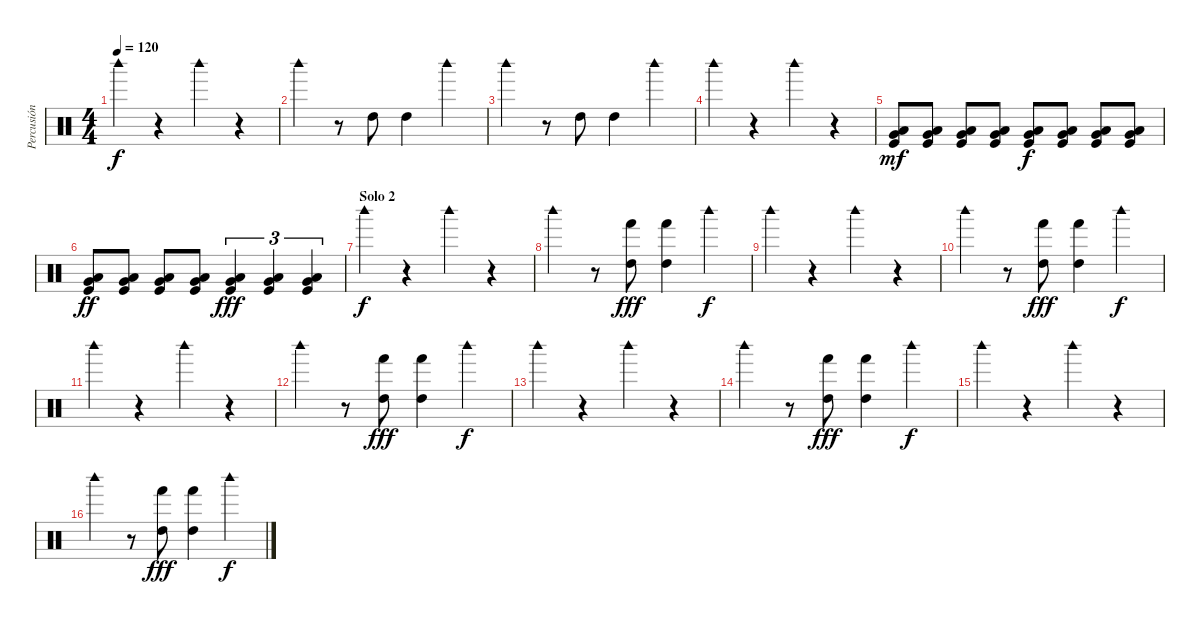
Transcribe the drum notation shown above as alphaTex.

\track ("Percusión" "Percusión") {instrument percussion}
\staff {score}
\articulation defaults
\ts (4 4)
\tempo 120
\clef neutral
\ks c "Woodblock high (hit)".4{dy f}
r.4 "Woodblock high (hit)".4 r.4 |
"Woodblock high (hit)".4 r.8 "High Tom (hit)".8 "High Tom (hit)".4 "Woodblock high (hit)".4 |
"Woodblock high (hit)".4 r.8 "High Tom (hit)".8 "High Tom (hit)".4 "Woodblock high (hit)".4 |
"Woodblock high (hit)".4 r.4 "Woodblock high (hit)".4 r.4 |
("Very Low Tom (hit)" "Low Floor Tom (hit)" "Kick (hit)").8{dy mf} ("Very Low Tom (hit)" "Low Floor Tom (hit)" "Kick (hit)").8 ("Very Low Tom (hit)" "Low Floor Tom (hit)" "Kick (hit)").8 ("Very Low Tom (hit)" "Low Floor Tom (hit)" "Kick (hit)").8 ("Very Low Tom (hit)" "Low Floor Tom (hit)" "Kick (hit)").8{dy f} ("Very Low Tom (hit)" "Low Floor Tom (hit)" "Kick (hit)").8 ("Very Low Tom (hit)" "Low Floor Tom (hit)" "Kick (hit)").8 ("Very Low Tom (hit)" "Low Floor Tom (hit)" "Kick (hit)").8 |
("Very Low Tom (hit)" "Low Floor Tom (hit)" "Kick (hit)").8{dy ff} ("Very Low Tom (hit)" "Low Floor Tom (hit)" "Kick (hit)").8 ("Very Low Tom (hit)" "Low Floor Tom (hit)" "Kick (hit)").8 ("Very Low Tom (hit)" "Low Floor Tom (hit)" "Kick (hit)").8 ("Very Low Tom (hit)" "Low Floor Tom (hit)" "Kick (hit)").4{tu (3 2) dy fff} ("Very Low Tom (hit)" "Low Floor Tom (hit)" "Kick (hit)").4{tu (3 2)} ("Very Low Tom (hit)" "Low Floor Tom (hit)" "Kick (hit)").4{tu (3 2)} |
\section ("" "Solo 2")
"Woodblock high (hit)".4{dy f} r.4 "Woodblock high (hit)".4 r.4 |
"Woodblock high (hit)".4 r.8 ("Hand (hit)" "High Tom (hit)").8{dy fff} ("Hand (hit)" "High Tom (hit)").4 "Woodblock high (hit)".4{dy f} |
"Woodblock high (hit)".4 r.4 "Woodblock high (hit)".4 r.4 |
"Woodblock high (hit)".4 r.8 ("Hand (hit)" "High Tom (hit)").8{dy fff} ("Hand (hit)" "High Tom (hit)").4 "Woodblock high (hit)".4{dy f} |
"Woodblock high (hit)".4 r.4 "Woodblock high (hit)".4 r.4 |
"Woodblock high (hit)".4 r.8 ("Hand (hit)" "High Tom (hit)").8{dy fff} ("Hand (hit)" "High Tom (hit)").4 "Woodblock high (hit)".4{dy f} |
"Woodblock high (hit)".4 r.4 "Woodblock high (hit)".4 r.4 |
"Woodblock high (hit)".4 r.8 ("Hand (hit)" "High Tom (hit)").8{dy fff} ("Hand (hit)" "High Tom (hit)").4 "Woodblock high (hit)".4{dy f} |
"Woodblock high (hit)".4 r.4 "Woodblock high (hit)".4 r.4 |
"Woodblock high (hit)".4 r.8 ("Hand (hit)" "High Tom (hit)").8{dy fff} ("Hand (hit)" "High Tom (hit)").4 "Woodblock high (hit)".4{dy f}
